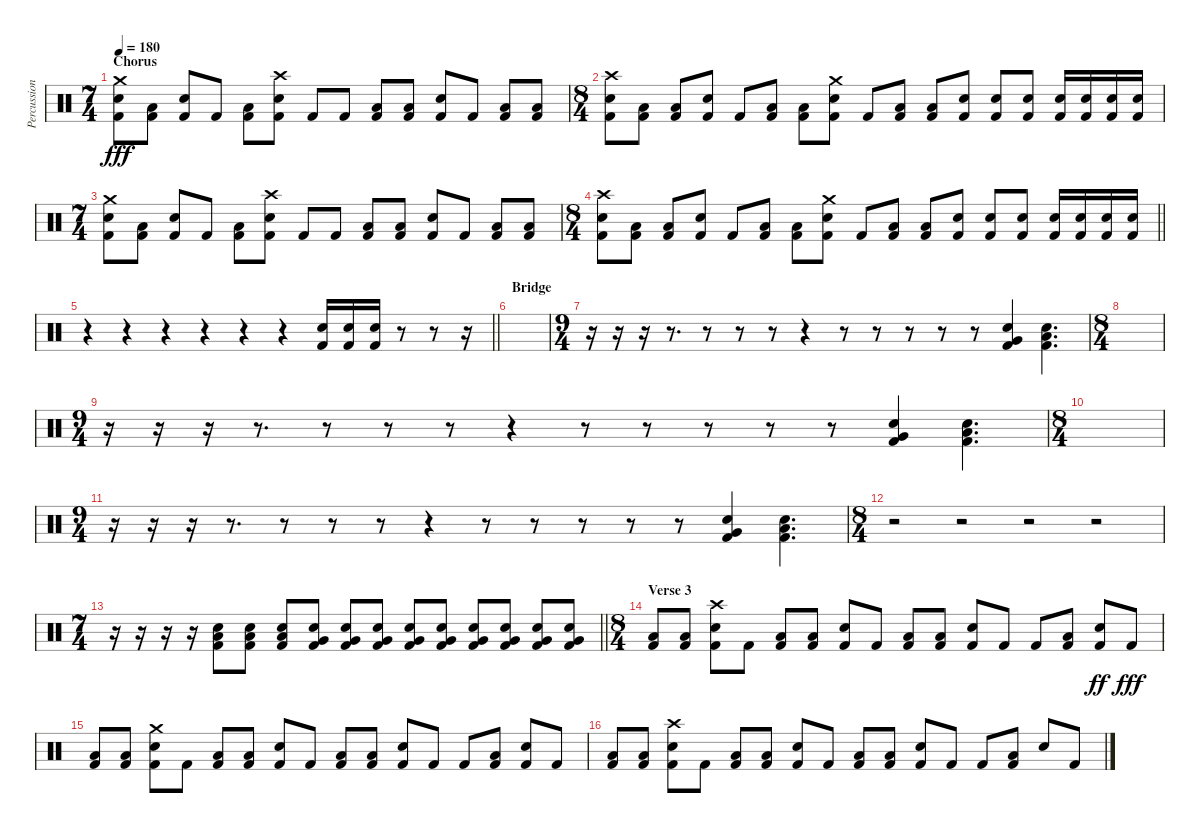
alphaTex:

\track ("Percussion" "Percussion") {instrument percussion}
\staff {score}
\articulation defaults
\ts (7 4)
\section ("" "Chorus ")
\tempo 180
\clef neutral
\ks c
("Crash medium (hit)" "Electric Snare (hit)" "Kick (hit) 2").8{dy fff} ("Low Floor Tom (hit)" "Kick (hit) 2").8 ("Electric Snare (hit)" "Kick (hit) 2").8 "Kick (hit) 2".8 ("Low Floor Tom (hit)" "Kick (hit) 2").8 ("Crash high (hit)" "Electric Snare (hit)" "Kick (hit) 2").8 "Kick (hit) 2".8 "Kick (hit) 2".8 ("Low Floor Tom (hit)" "Kick (hit) 2").8 ("Low Floor Tom (hit)" "Kick (hit) 2").8 ("Electric Snare (hit)" "Kick (hit) 2").8 "Kick (hit) 2".8 ("Low Floor Tom (hit)" "Kick (hit) 2").8 ("Low Floor Tom (hit)" "Kick (hit) 2").8 |
\ts (8 4)
("Crash high (hit)" "Electric Snare (hit)" "Kick (hit) 2").8 ("Low Floor Tom (hit)" "Kick (hit) 2").8 ("Low Floor Tom (hit)" "Kick (hit) 2").8 ("Electric Snare (hit)" "Kick (hit) 2").8 "Kick (hit) 2".8 ("Low Floor Tom (hit)" "Kick (hit) 2").8 ("Low Floor Tom (hit)" "Kick (hit) 2").8 ("Crash medium (hit)" "Electric Snare (hit)" "Kick (hit) 2").8 "Kick (hit) 2".8 ("Low Floor Tom (hit)" "Kick (hit) 2").8 ("Low Floor Tom (hit)" "Kick (hit) 2").8 ("Electric Snare (hit)" "Kick (hit) 2").8 ("Electric Snare (hit)" "Kick (hit) 2").8 ("Electric Snare (hit)" "Kick (hit) 2").8 ("Electric Snare (hit)" "Kick (hit) 2").16 ("Electric Snare (hit)" "Kick (hit) 2").16 ("Electric Snare (hit)" "Kick (hit) 2").16 ("Electric Snare (hit)" "Kick (hit) 2").16 |
\ts (7 4)
("Crash medium (hit)" "Electric Snare (hit)" "Kick (hit) 2").8 ("Low Floor Tom (hit)" "Kick (hit) 2").8 ("Electric Snare (hit)" "Kick (hit) 2").8 "Kick (hit) 2".8 ("Low Floor Tom (hit)" "Kick (hit) 2").8 ("Crash high (hit)" "Electric Snare (hit)" "Kick (hit) 2").8 "Kick (hit) 2".8 "Kick (hit) 2".8 ("Low Floor Tom (hit)" "Kick (hit) 2").8 ("Low Floor Tom (hit)" "Kick (hit) 2").8 ("Electric Snare (hit)" "Kick (hit) 2").8 "Kick (hit) 2".8 ("Low Floor Tom (hit)" "Kick (hit) 2").8 ("Low Floor Tom (hit)" "Kick (hit) 2").8 |
\ts (8 4)
\barLineRight lightlight
("Crash high (hit)" "Electric Snare (hit)" "Kick (hit) 2").8 ("Low Floor Tom (hit)" "Kick (hit) 2").8 ("Low Floor Tom (hit)" "Kick (hit) 2").8 ("Electric Snare (hit)" "Kick (hit) 2").8 "Kick (hit) 2".8 ("Low Floor Tom (hit)" "Kick (hit) 2").8 ("Low Floor Tom (hit)" "Kick (hit) 2").8 ("Crash medium (hit)" "Electric Snare (hit)" "Kick (hit) 2").8 "Kick (hit) 2".8 ("Low Floor Tom (hit)" "Kick (hit) 2").8 ("Low Floor Tom (hit)" "Kick (hit) 2").8 ("Electric Snare (hit)" "Kick (hit) 2").8 ("Electric Snare (hit)" "Kick (hit) 2").8 ("Electric Snare (hit)" "Kick (hit) 2").8 ("Electric Snare (hit)" "Kick (hit) 2").16 ("Electric Snare (hit)" "Kick (hit) 2").16 ("Electric Snare (hit)" "Kick (hit) 2").16 ("Electric Snare (hit)" "Kick (hit) 2").16 |
\barLineRight lightlight
r.4 r.4 r.4 r.4 r.4 r.4 ("Electric Snare (hit)" "Kick (hit) 2").16 ("Electric Snare (hit)" "Kick (hit) 2").16 ("Electric Snare (hit)" "Kick (hit) 2").16 r.8 r.8 r.16 |
\section ("" "Bridge")
|
\ts (9 4)
r.16 r.16 r.16 r.8{d} r.8 r.8 r.8 r.4 r.8 r.8 r.8 r.8 r.8 ("Very Low Tom (hit)" "Electric Snare (hit)" "Kick (hit) 2").4 ("Low Floor Tom (hit)" "Electric Snare (hit)" "Kick (hit) 2").4{d} |
\ts (8 4)
|
\ts (9 4)
r.16 r.16 r.16 r.8{d} r.8 r.8 r.8 r.4 r.8 r.8 r.8 r.8 r.8 ("Very Low Tom (hit)" "Electric Snare (hit)" "Kick (hit) 2").4 ("Low Floor Tom (hit)" "Electric Snare (hit)" "Kick (hit) 2").4{d} |
\ts (8 4)
|
\ts (9 4)
r.16 r.16 r.16 r.8{d} r.8 r.8 r.8 r.4 r.8 r.8 r.8 r.8 r.8 ("Very Low Tom (hit)" "Electric Snare (hit)" "Kick (hit) 2").4 ("Low Floor Tom (hit)" "Electric Snare (hit)" "Kick (hit) 2").4{d} |
\ts (8 4)
r.2 r.2 r.2 r.2 |
\ts (7 4)
\barLineRight lightlight
r.16 r.16 r.16 r.16 ("Low Floor Tom (hit)" "Electric Snare (hit)" "Kick (hit) 2").8 ("Low Floor Tom (hit)" "Electric Snare (hit)" "Kick (hit) 2").8 ("Low Floor Tom (hit)" "Electric Snare (hit)" "Kick (hit) 2").8 ("Very Low Tom (hit)" "Electric Snare (hit)" "Kick (hit) 2").8 ("Very Low Tom (hit)" "Electric Snare (hit)" "Kick (hit) 2").8 ("Very Low Tom (hit)" "Electric Snare (hit)" "Kick (hit) 2").8 ("Very Low Tom (hit)" "Electric Snare (hit)" "Kick (hit) 2").8 ("Very Low Tom (hit)" "Electric Snare (hit)" "Kick (hit) 2").8 ("Very Low Tom (hit)" "Electric Snare (hit)" "Kick (hit) 2").8 ("Very Low Tom (hit)" "Electric Snare (hit)" "Kick (hit) 2").8 ("Very Low Tom (hit)" "Electric Snare (hit)" "Kick (hit) 2").8 ("Very Low Tom (hit)" "Electric Snare (hit)" "Kick (hit) 2").8 |
\ts (8 4)
\section ("" "Verse 3")
("Low Floor Tom (hit)" "Kick (hit) 2").8 ("Low Floor Tom (hit)" "Kick (hit) 2").8 ("Crash high (hit)" "Electric Snare (hit)" "Kick (hit) 2").8 "Kick (hit) 2".8 ("Low Floor Tom (hit)" "Kick (hit) 2").8 ("Low Floor Tom (hit)" "Kick (hit) 2").8 ("Electric Snare (hit)" "Kick (hit) 2").8 "Kick (hit) 2".8 ("Low Floor Tom (hit)" "Kick (hit) 2").8 ("Low Floor Tom (hit)" "Kick (hit) 2").8 ("Electric Snare (hit)" "Kick (hit) 2").8 "Kick (hit) 2".8 "Kick (hit) 2".8 ("Low Floor Tom (hit)" "Kick (hit) 2").8 ("Electric Snare (hit)" "Kick (hit) 2").8{dy ff} "Kick (hit) 2".8{dy fff} |
("Low Floor Tom (hit)" "Kick (hit) 2").8 ("Low Floor Tom (hit)" "Kick (hit) 2").8 ("Crash medium (hit)" "Electric Snare (hit)" "Kick (hit) 2").8 "Kick (hit) 2".8 ("Low Floor Tom (hit)" "Kick (hit) 2").8 ("Low Floor Tom (hit)" "Kick (hit) 2").8 ("Electric Snare (hit)" "Kick (hit) 2").8 "Kick (hit) 2".8 ("Low Floor Tom (hit)" "Kick (hit) 2").8 ("Low Floor Tom (hit)" "Kick (hit) 2").8 ("Electric Snare (hit)" "Kick (hit) 2").8 "Kick (hit) 2".8 "Kick (hit) 2".8 ("Low Floor Tom (hit)" "Kick (hit) 2").8 ("Electric Snare (hit)" "Kick (hit) 2").8 "Kick (hit) 2".8 |
("Low Floor Tom (hit)" "Kick (hit) 2").8 ("Low Floor Tom (hit)" "Kick (hit) 2").8 ("Crash high (hit)" "Electric Snare (hit)" "Kick (hit) 2").8 "Kick (hit) 2".8 ("Low Floor Tom (hit)" "Kick (hit) 2").8 ("Low Floor Tom (hit)" "Kick (hit) 2").8 ("Electric Snare (hit)" "Kick (hit) 2").8 "Kick (hit) 2".8 ("Low Floor Tom (hit)" "Kick (hit) 2").8 ("Low Floor Tom (hit)" "Kick (hit) 2").8 ("Electric Snare (hit)" "Kick (hit) 2").8 "Kick (hit) 2".8 "Kick (hit) 2".8 ("Low Floor Tom (hit)" "Kick (hit) 2").8 "Electric Snare (hit)".8 "Kick (hit) 2".8
